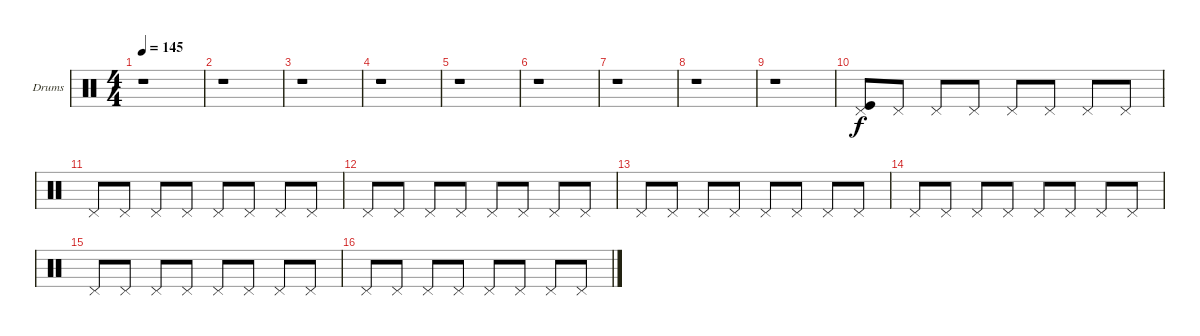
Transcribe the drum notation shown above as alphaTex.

\defaultSystemsLayout 4
\bracketExtendMode groupsimilarinstruments
\firstSystemTrackNameOrientation horizontal
\otherSystemsTrackNameOrientation horizontal
\track ("Drumkit" "Drums") {instrument percussion}
\staff {score}
\articulation defaults
\ts (4 4)
\tempo 145
\clef neutral
\ks c
r.1{dy f} |
r.1 |
r.1 |
r.1 |
r.1 |
r.1 |
r.1 |
r.1 |
r.1 |
("Pedal Hi-Hat (hit)" "Kick (hit)").8 "Pedal Hi-Hat (hit)".8 "Pedal Hi-Hat (hit)".8 "Pedal Hi-Hat (hit)".8 "Pedal Hi-Hat (hit)".8 "Pedal Hi-Hat (hit)".8 "Pedal Hi-Hat (hit)".8 "Pedal Hi-Hat (hit)".8 |
"Pedal Hi-Hat (hit)".8 "Pedal Hi-Hat (hit)".8 "Pedal Hi-Hat (hit)".8 "Pedal Hi-Hat (hit)".8 "Pedal Hi-Hat (hit)".8 "Pedal Hi-Hat (hit)".8 "Pedal Hi-Hat (hit)".8 "Pedal Hi-Hat (hit)".8 |
"Pedal Hi-Hat (hit)".8 "Pedal Hi-Hat (hit)".8 "Pedal Hi-Hat (hit)".8 "Pedal Hi-Hat (hit)".8 "Pedal Hi-Hat (hit)".8 "Pedal Hi-Hat (hit)".8 "Pedal Hi-Hat (hit)".8 "Pedal Hi-Hat (hit)".8 |
"Pedal Hi-Hat (hit)".8 "Pedal Hi-Hat (hit)".8 "Pedal Hi-Hat (hit)".8 "Pedal Hi-Hat (hit)".8 "Pedal Hi-Hat (hit)".8 "Pedal Hi-Hat (hit)".8 "Pedal Hi-Hat (hit)".8 "Pedal Hi-Hat (hit)".8 |
"Pedal Hi-Hat (hit)".8 "Pedal Hi-Hat (hit)".8 "Pedal Hi-Hat (hit)".8 "Pedal Hi-Hat (hit)".8 "Pedal Hi-Hat (hit)".8 "Pedal Hi-Hat (hit)".8 "Pedal Hi-Hat (hit)".8 "Pedal Hi-Hat (hit)".8 |
"Pedal Hi-Hat (hit)".8 "Pedal Hi-Hat (hit)".8 "Pedal Hi-Hat (hit)".8 "Pedal Hi-Hat (hit)".8 "Pedal Hi-Hat (hit)".8 "Pedal Hi-Hat (hit)".8 "Pedal Hi-Hat (hit)".8 "Pedal Hi-Hat (hit)".8 |
"Pedal Hi-Hat (hit)".8 "Pedal Hi-Hat (hit)".8 "Pedal Hi-Hat (hit)".8 "Pedal Hi-Hat (hit)".8 "Pedal Hi-Hat (hit)".8 "Pedal Hi-Hat (hit)".8 "Pedal Hi-Hat (hit)".8 "Pedal Hi-Hat (hit)".8
